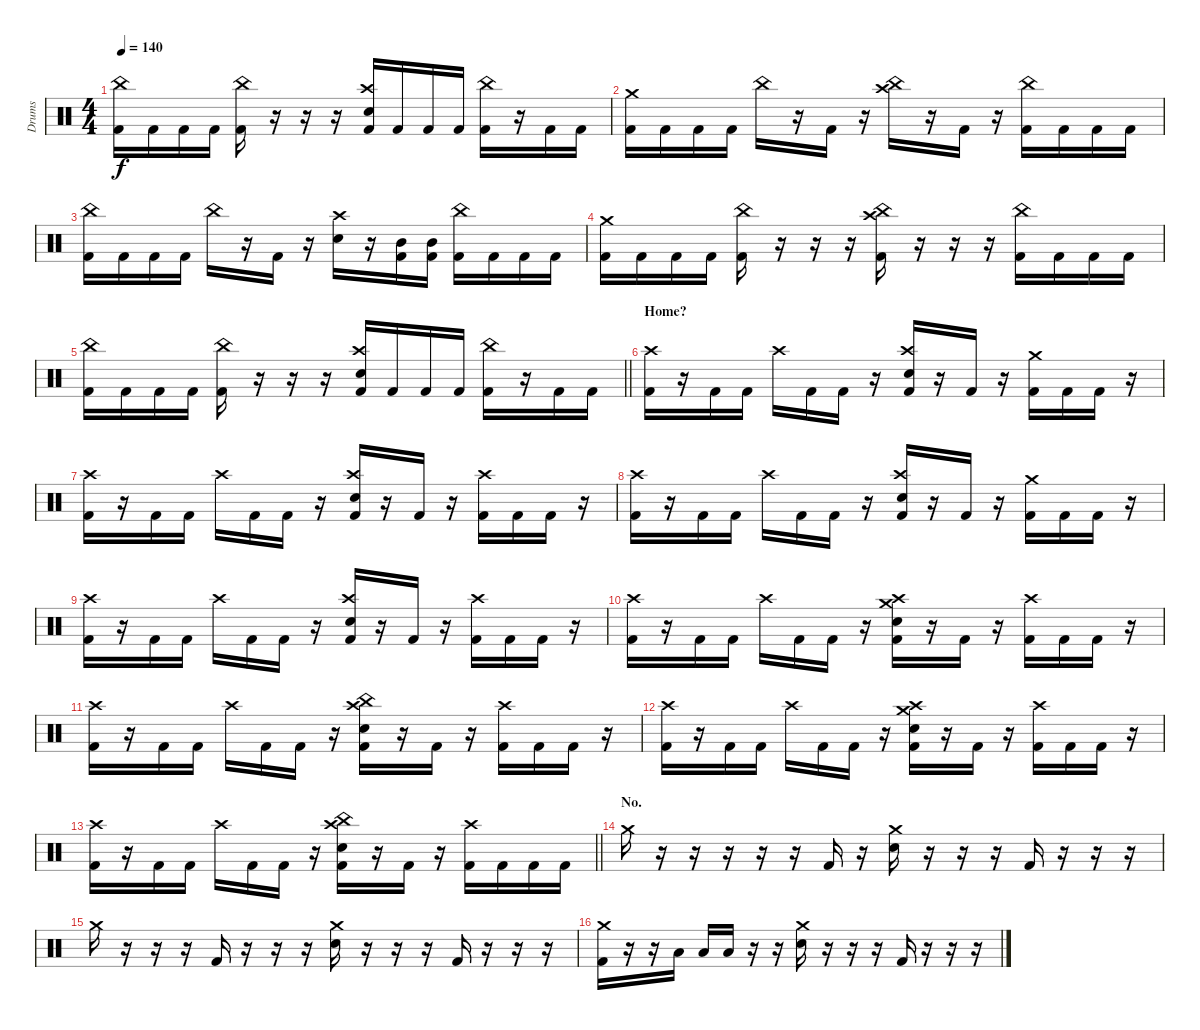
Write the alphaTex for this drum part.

\track ("Drums" "Drums") {instrument percussion}
\staff {score}
\articulation defaults
\ts (4 4)
\tempo 140
\clef neutral
\ks c
("China (hit)" "Kick (hit) 2").16{dy f} "Kick (hit) 2".16 "Kick (hit) 2".16 "Kick (hit) 2".16 ("China (hit)" "Kick (hit) 2").16 r.16 r.16 r.16 ("Crash high (hit)" "Snare (hit) 2" "Kick (hit) 2").16 "Kick (hit) 2".16 "Kick (hit) 2".16 "Kick (hit) 2".16 ("China (hit)" "Kick (hit) 2").16 r.16 "Kick (hit) 2".16 "Kick (hit) 2".16 |
("Crash medium (hit)" "Kick (hit) 2").16 "Kick (hit) 2".16 "Kick (hit) 2".16 "Kick (hit) 2".16 "China (hit)".16 r.16 "Kick (hit) 2".16 r.16 ("China (hit)" "Crash high (hit)").16 r.16 "Kick (hit) 2".16 r.16 ("China (hit)" "Kick (hit) 2").16 "Kick (hit) 2".16 "Kick (hit) 2".16 "Kick (hit) 2".16 |
("China (hit)" "Kick (hit) 2").16 "Kick (hit) 2".16 "Kick (hit) 2".16 "Kick (hit) 2".16 "China (hit)".16 r.16 "Kick (hit) 2".16 r.16 ("Crash high (hit)" "Snare (hit) 2").16 r.16 ("Mid Tom (hit)" "Kick (hit) 2").16 ("Mid Tom (hit)" "Kick (hit) 2").16 ("China (hit)" "Kick (hit) 2").16 "Kick (hit) 2".16 "Kick (hit) 2".16 "Kick (hit) 2".16 |
("Crash medium (hit)" "Kick (hit) 2").16 "Kick (hit) 2".16 "Kick (hit) 2".16 "Kick (hit) 2".16 ("China (hit)" "Kick (hit) 2").16 r.16 r.16 r.16 ("China (hit)" "Crash high (hit)" "Kick (hit) 2").16 r.16 r.16 r.16 ("China (hit)" "Kick (hit) 2").16 "Kick (hit) 2".16 "Kick (hit) 2".16 "Kick (hit) 2".16 |
\barLineRight lightlight
("China (hit)" "Kick (hit) 2").16 "Kick (hit) 2".16 "Kick (hit) 2".16 "Kick (hit) 2".16 ("China (hit)" "Kick (hit) 2").16 r.16 r.16 r.16 ("Crash high (hit)" "Snare (hit) 2" "Kick (hit) 2").16 "Kick (hit) 2".16 "Kick (hit) 2".16 "Kick (hit) 2".16 ("China (hit)" "Kick (hit) 2").16 r.16 "Kick (hit) 2".16 "Kick (hit) 2".16 |
\section ("" "Home?")
("Crash high (hit)" "Kick (hit) 2").16 r.16 "Kick (hit) 2".16 "Kick (hit) 2".16 "Crash high (hit)".16 "Kick (hit) 2".16 "Kick (hit) 2".16 r.16 ("Crash high (hit)" "Snare (hit) 2" "Kick (hit) 2").16 r.16 "Kick (hit) 2".16 r.16 ("Crash medium (hit)" "Kick (hit) 2").16 "Kick (hit) 2".16 "Kick (hit) 2".16 r.16 |
("Crash high (hit)" "Kick (hit) 2").16 r.16 "Kick (hit) 2".16 "Kick (hit) 2".16 "Crash high (hit)".16 "Kick (hit) 2".16 "Kick (hit) 2".16 r.16 ("Crash high (hit)" "Snare (hit) 2" "Kick (hit) 2").16 r.16 "Kick (hit) 2".16 r.16 ("Crash high (hit)" "Kick (hit) 2").16 "Kick (hit) 2".16 "Kick (hit) 2".16 r.16 |
("Crash high (hit)" "Kick (hit) 2").16 r.16 "Kick (hit) 2".16 "Kick (hit) 2".16 "Crash high (hit)".16 "Kick (hit) 2".16 "Kick (hit) 2".16 r.16 ("Crash high (hit)" "Snare (hit) 2" "Kick (hit) 2").16 r.16 "Kick (hit) 2".16 r.16 ("Crash medium (hit)" "Kick (hit) 2").16 "Kick (hit) 2".16 "Kick (hit) 2".16 r.16 |
("Crash high (hit)" "Kick (hit) 2").16 r.16 "Kick (hit) 2".16 "Kick (hit) 2".16 "Crash high (hit)".16 "Kick (hit) 2".16 "Kick (hit) 2".16 r.16 ("Crash high (hit)" "Snare (hit) 2" "Kick (hit) 2").16 r.16 "Kick (hit) 2".16 r.16 ("Crash high (hit)" "Kick (hit) 2").16 "Kick (hit) 2".16 "Kick (hit) 2".16 r.16 |
("Crash high (hit)" "Kick (hit) 2").16 r.16 "Kick (hit) 2".16 "Kick (hit) 2".16 "Crash high (hit)".16 "Kick (hit) 2".16 "Kick (hit) 2".16 r.16 ("Crash medium (hit)" "Crash high (hit)" "Snare (hit) 2" "Kick (hit) 2").16 r.16 "Kick (hit) 2".16 r.16 ("Crash high (hit)" "Kick (hit) 2").16 "Kick (hit) 2".16 "Kick (hit) 2".16 r.16 |
("Crash high (hit)" "Kick (hit) 2").16 r.16 "Kick (hit) 2".16 "Kick (hit) 2".16 "Crash high (hit)".16 "Kick (hit) 2".16 "Kick (hit) 2".16 r.16 ("China (hit)" "Crash high (hit)" "Snare (hit) 2" "Kick (hit) 2").16 r.16 "Kick (hit) 2".16 r.16 ("Crash high (hit)" "Kick (hit) 2").16 "Kick (hit) 2".16 "Kick (hit) 2".16 r.16 |
("Crash high (hit)" "Kick (hit) 2").16 r.16 "Kick (hit) 2".16 "Kick (hit) 2".16 "Crash high (hit)".16 "Kick (hit) 2".16 "Kick (hit) 2".16 r.16 ("Crash medium (hit)" "Crash high (hit)" "Snare (hit) 2" "Kick (hit) 2").16 r.16 "Kick (hit) 2".16 r.16 ("Crash high (hit)" "Kick (hit) 2").16 "Kick (hit) 2".16 "Kick (hit) 2".16 r.16 |
\barLineRight lightlight
("Crash high (hit)" "Kick (hit) 2").16 r.16 "Kick (hit) 2".16 "Kick (hit) 2".16 "Crash high (hit)".16 "Kick (hit) 2".16 "Kick (hit) 2".16 r.16 ("China (hit)" "Crash high (hit)" "Snare (hit) 2" "Kick (hit) 2").16 r.16 "Kick (hit) 2".16 r.16 ("Crash high (hit)" "Kick (hit) 2").16 "Kick (hit) 2".16 "Kick (hit) 2".16 "Kick (hit) 2".16 |
\section ("" "No.")
"Crash medium (hit)".16 r.16 r.16 r.16 r.16 r.16 "Kick (hit) 2".16 r.16 ("Crash medium (hit)" "Snare (hit) 2").16 r.16 r.16 r.16 "Kick (hit) 2".16 r.16 r.16 r.16 |
"Crash medium (hit)".16 r.16 r.16 r.16 "Kick (hit) 2".16 r.16 r.16 r.16 ("Crash medium (hit)" "Snare (hit) 2").16 r.16 r.16 r.16 "Kick (hit) 2".16 r.16 r.16 r.16 |
("Crash medium (hit)" "Kick (hit) 2").16 r.16 r.16 "Low Tom (hit)".16 "Low Tom (hit)".16 "Low Tom (hit)".16 r.16 r.16 ("Crash medium (hit)" "Snare (hit) 2").16 r.16 r.16 r.16 "Kick (hit) 2".16 r.16 r.16 r.16
